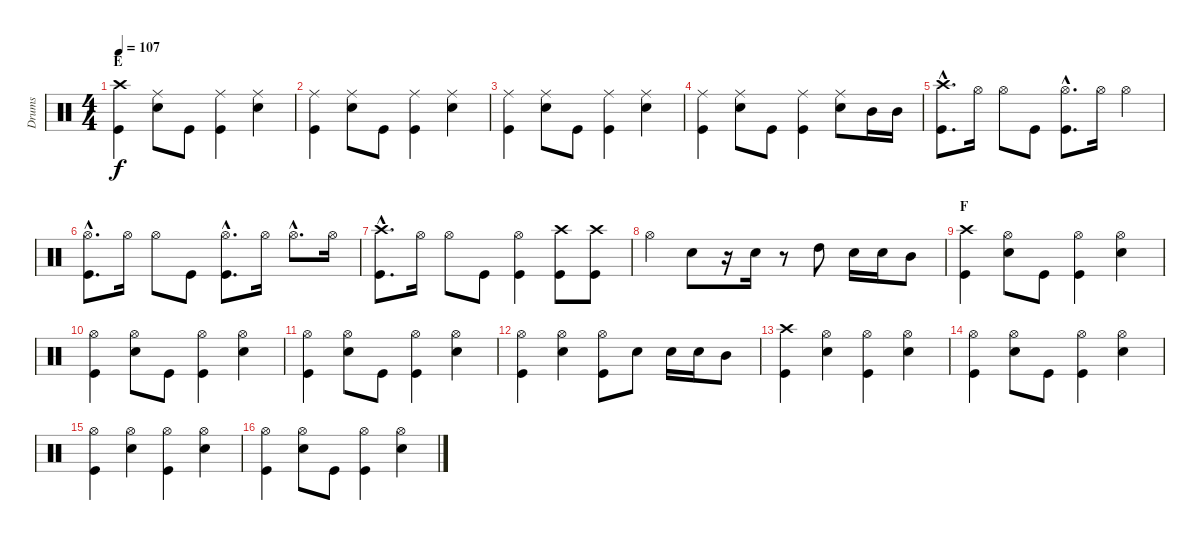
\track ("Drums" "Drums") {instrument percussion}
\staff {score}
\articulation defaults
\ts (4 4)
\section ("" "E")
\tempo 107
\clef neutral
\ks c
("Crash high (hit)" "Kick (hit)").4{dy f} ("Ride (middle)" "Snare (hit) 2").8 "Kick (hit)".8 ("Ride (middle)" "Kick (hit)").4 ("Ride (middle)" "Snare (hit) 2").4 |
("Ride (middle)" "Kick (hit)").4 ("Ride (middle)" "Snare (hit) 2").8 "Kick (hit)".8 ("Ride (middle)" "Kick (hit)").4 ("Ride (middle)" "Snare (hit) 2").4 |
("Ride (middle)" "Kick (hit)").4 ("Ride (middle)" "Snare (hit) 2").8 "Kick (hit)".8 ("Ride (middle)" "Kick (hit)").4 ("Ride (middle)" "Snare (hit) 2").4 |
("Ride (middle)" "Kick (hit)").4 ("Ride (middle)" "Snare (hit) 2").8 "Kick (hit)".8 ("Ride (middle)" "Kick (hit)").4 ("Ride (middle)" "Snare (hit) 2").8 "Mid Tom (hit)".16 "Mid Tom (hit)".16 |
("Crash high (hit)"{hac} "Kick (hit)"{hac}).8{d} "Hi-Hat (open)".16 "Hi-Hat (open)".8 "Kick (hit)".8 ("Hi-Hat (open)"{hac} "Kick (hit)"{hac}).8{d} "Hi-Hat (open)".16 "Hi-Hat (open)".4 |
("Hi-Hat (open)"{hac} "Kick (hit)"{hac}).8{d} "Hi-Hat (open)".16 "Hi-Hat (open)".8 "Kick (hit)".8 ("Hi-Hat (open)"{hac} "Kick (hit)"{hac}).8{d} "Hi-Hat (open)".16 "Hi-Hat (open)"{hac}.8{d} "Hi-Hat (open)".16 |
("Crash high (hit)"{hac} "Kick (hit)"{hac}).8{d} "Hi-Hat (open)".16 "Hi-Hat (open)".8 "Kick (hit)".8 ("Hi-Hat (open)" "Kick (hit)").4 ("Crash high (hit)" "Kick (hit)").8 ("Crash high (hit)" "Kick (hit)").8 |
"Hi-Hat (open)".4 "Snare (hit) 2".8 r.16 "Snare (hit) 2".16 r.8 "High Tom (hit)".8 "Snare (hit) 2".16 "Snare (hit) 2".16 "Mid Tom (hit)".8 |
\section ("" "F")
("Crash high (hit)" "Kick (hit)").4 ("Hi-Hat (open)" "Snare (hit) 2").8 "Kick (hit)".8 ("Hi-Hat (open)" "Kick (hit)").4 ("Hi-Hat (open)" "Snare (hit) 2").4 |
("Hi-Hat (open)" "Kick (hit)").4 ("Hi-Hat (open)" "Snare (hit) 2").8 "Kick (hit)".8 ("Hi-Hat (open)" "Kick (hit)").4 ("Hi-Hat (open)" "Snare (hit) 2").4 |
("Hi-Hat (open)" "Kick (hit)").4 ("Hi-Hat (open)" "Snare (hit) 2").8 "Kick (hit)".8 ("Hi-Hat (open)" "Kick (hit)").4 ("Hi-Hat (open)" "Snare (hit) 2").4 |
("Hi-Hat (open)" "Kick (hit)").4 ("Hi-Hat (open)" "Snare (hit) 2").4 ("Hi-Hat (open)" "Kick (hit)").8 "Snare (hit) 2".8 "Snare (hit) 2".16 "Snare (hit) 2".16 "Mid Tom (hit)".8 |
("Crash high (hit)" "Kick (hit)").4 ("Hi-Hat (open)" "Snare (hit) 2").4 ("Hi-Hat (open)" "Kick (hit)").4 ("Hi-Hat (open)" "Snare (hit) 2").4 |
("Hi-Hat (open)" "Kick (hit)").4 ("Hi-Hat (open)" "Snare (hit) 2").8 "Kick (hit)".8 ("Hi-Hat (open)" "Kick (hit)").4 ("Hi-Hat (open)" "Snare (hit) 2").4 |
("Hi-Hat (open)" "Kick (hit)").4 ("Hi-Hat (open)" "Snare (hit) 2").4 ("Hi-Hat (open)" "Kick (hit)").4 ("Hi-Hat (open)" "Snare (hit) 2").4 |
("Hi-Hat (open)" "Kick (hit)").4 ("Hi-Hat (open)" "Snare (hit) 2").8 "Kick (hit)".8 ("Hi-Hat (open)" "Kick (hit)").4 ("Hi-Hat (open)" "Snare (hit) 2").4
